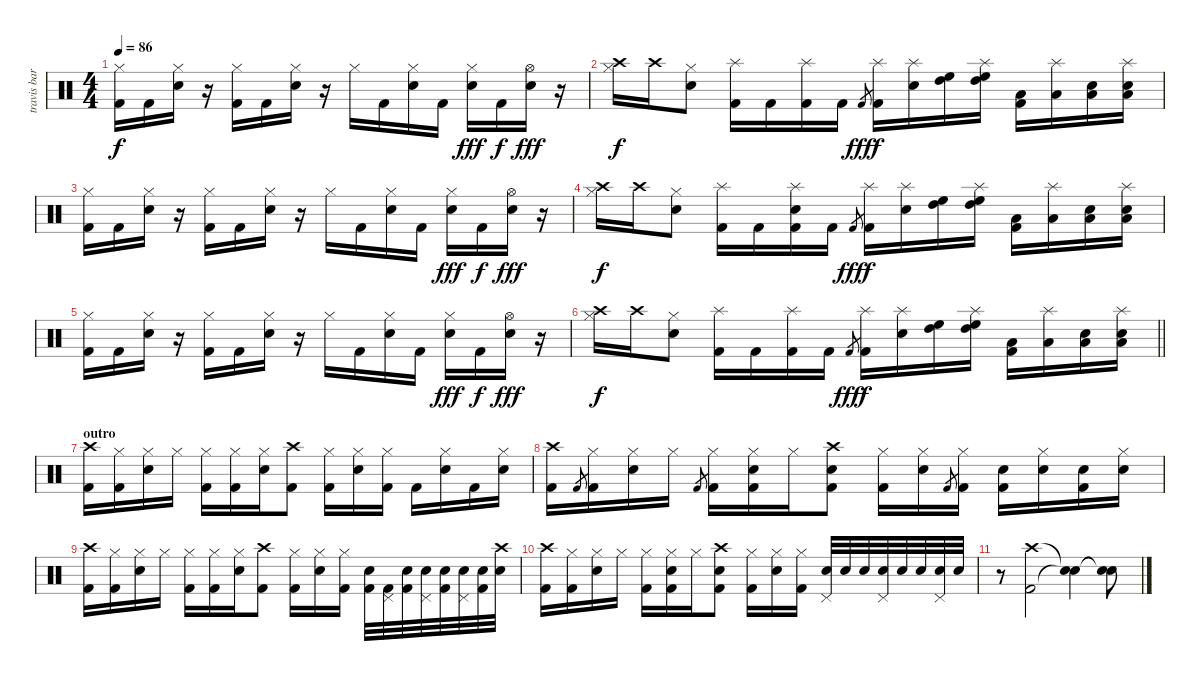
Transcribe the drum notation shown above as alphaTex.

\track ("travis barker drums" "travis bar") {instrument percussion}
\staff {score}
\articulation defaults
\ts (4 4)
\tempo 86
\clef neutral
\ks c
("Hi-Hat (closed)" "Kick (hit) 2").16{dy f} "Kick (hit) 2".16 ("Hi-Hat (closed)" "Snare (hit) 2").16 r.16 ("Hi-Hat (closed)" "Kick (hit) 2").16 "Kick (hit) 2".16 ("Hi-Hat (closed)" "Snare (hit) 2").16 r.16 "Hi-Hat (closed)".16 "Kick (hit) 2".16 ("Hi-Hat (closed)" "Snare (hit) 2").16 "Kick (hit) 2".16 ("Hi-Hat (closed)" "Snare (hit) 2").16{dy fff} "Kick (hit) 2".16{dy f} ("Hi-Hat (open)" "Snare (hit) 2").16{dy fff} r.16 |
("Hi-Hat (closed)" "Crash high (hit)").16{dy f} "Crash high (hit)".16 ("Hi-Hat (closed)" "Snare (hit) 2").8 ("Splash (hit)" "Kick (hit) 2").16 "Kick (hit) 2".16 ("Splash (hit)" "Kick (hit) 2"{tr (36 64)}).16 "Kick (hit) 2".16 "Kick (hit) 2".8{gr dy fff} ("Splash (hit)" "Kick (hit) 2").16{dy f} ("Splash (hit)" "Snare (hit) 2").16 ("High Floor Tom (hit)" "High Tom (hit)").16 ("Splash (hit)" "High Floor Tom (hit)" "High Tom (hit)").16 ("Low Tom (hit)" "Kick (hit) 2"{tr (36 64)}).16 ("Splash (hit)" "Low Tom (hit)").16 ("Snare (hit) 2" "Low Floor Tom (hit)").16 ("Splash (hit)" "Snare (hit) 2" "Low Floor Tom (hit)").16 |
("Hi-Hat (closed)" "Kick (hit) 2").16 "Kick (hit) 2".16 ("Hi-Hat (closed)" "Snare (hit) 2").16 r.16 ("Hi-Hat (closed)" "Kick (hit) 2").16 "Kick (hit) 2".16 ("Hi-Hat (closed)" "Snare (hit) 2").16 r.16 "Hi-Hat (closed)".16 "Kick (hit) 2".16 ("Hi-Hat (closed)" "Snare (hit) 2").16 "Kick (hit) 2".16 ("Hi-Hat (closed)" "Snare (hit) 2").16{dy fff} "Kick (hit) 2".16{dy f} ("Hi-Hat (open)" "Snare (hit) 2").16{dy fff} r.16 |
("Hi-Hat (closed)" "Crash high (hit)").16{dy f} "Crash high (hit)".16 ("Hi-Hat (closed)" "Snare (hit) 2").8 ("Splash (hit)" "Kick (hit) 2").16 "Kick (hit) 2".16 ("Kick (hit) 2" "Splash (hit)" "Snare (hit) 2"{tr (36 64)}).16 "Kick (hit) 2".16 "Kick (hit) 2".8{gr dy fff} ("Splash (hit)" "Kick (hit) 2").16{dy f} ("Splash (hit)" "Snare (hit) 2").16 ("High Floor Tom (hit)" "High Tom (hit)").16 ("Splash (hit)" "High Floor Tom (hit)" "High Tom (hit)").16 ("Low Tom (hit)" "Kick (hit) 2"{tr (36 64)}).16 ("Splash (hit)" "Low Tom (hit)").16 ("Snare (hit) 2" "Low Floor Tom (hit)").16 ("Splash (hit)" "Snare (hit) 2" "Low Floor Tom (hit)").16 |
("Hi-Hat (closed)" "Kick (hit) 2").16 "Kick (hit) 2".16 ("Hi-Hat (closed)" "Snare (hit) 2").16 r.16 ("Hi-Hat (closed)" "Kick (hit) 2").16 "Kick (hit) 2".16 ("Hi-Hat (closed)" "Snare (hit) 2").16 r.16 "Hi-Hat (closed)".16 "Kick (hit) 2".16 ("Hi-Hat (closed)" "Snare (hit) 2").16 "Kick (hit) 2".16 ("Hi-Hat (closed)" "Snare (hit) 2").16{dy fff} "Kick (hit) 2".16{dy f} ("Hi-Hat (open)" "Snare (hit) 2").16{dy fff} r.16 |
\barLineRight lightlight
("Hi-Hat (closed)" "Crash high (hit)").16{dy f} "Crash high (hit)".16 ("Hi-Hat (closed)" "Snare (hit) 2").8 ("Splash (hit)" "Kick (hit) 2").16 "Kick (hit) 2".16 ("Splash (hit)" "Kick (hit) 2"{tr (36 64)}).16 "Kick (hit) 2".16 "Kick (hit) 2".8{gr dy fff} ("Splash (hit)" "Kick (hit) 2").16{dy f} ("Splash (hit)" "Snare (hit) 2").16 ("High Floor Tom (hit)" "High Tom (hit)").16 ("Splash (hit)" "High Floor Tom (hit)" "High Tom (hit)").16 ("Low Tom (hit)" "Kick (hit) 2"{tr (36 64)}).16 ("Splash (hit)" "Low Tom (hit)").16 ("Snare (hit) 2" "Low Floor Tom (hit)").16 ("Splash (hit)" "Snare (hit) 2" "Low Floor Tom (hit)").16 |
\section ("" "outro")
("Crash high (hit)" "Kick (hit) 2").16 ("Hi-Hat (closed)" "Kick (hit) 2").16 ("Hi-Hat (closed)" "Snare (hit) 2").16 "Hi-Hat (closed)".16 ("Hi-Hat (closed)" "Kick (hit) 2").16 ("Hi-Hat (closed)" "Kick (hit) 2").16 ("Hi-Hat (closed)" "Snare (hit) 2").16 ("Crash high (hit)" "Kick (hit) 2").8 ("Hi-Hat (closed)" "Kick (hit) 2").16 ("Hi-Hat (closed)" "Snare (hit) 2").16 ("Hi-Hat (closed)" "Kick (hit) 2").16 "Kick (hit) 2".16 ("Hi-Hat (closed)" "Snare (hit) 2").16 "Kick (hit) 2".16 ("Hi-Hat (closed)" "Snare (hit) 2").16 |
("Crash high (hit)" "Kick (hit) 2").16 "Kick (hit) 2".8{gr} ("Hi-Hat (closed)" "Kick (hit) 2").16 ("Hi-Hat (closed)" "Snare (hit) 2").16 "Hi-Hat (closed)".16 "Kick (hit) 2".8{gr} ("Hi-Hat (closed)" "Kick (hit) 2").16 ("Hi-Hat (closed)" "Snare (hit) 2" "Kick (hit) 2").16 "Hi-Hat (closed)".16 ("Crash high (hit)" "Snare (hit) 2" "Kick (hit) 2"{tr (36 16)}).8 ("Hi-Hat (closed)" "Kick (hit) 2").16 ("Hi-Hat (closed)" "Snare (hit) 2").16 "Kick (hit) 2".8{gr} ("Hi-Hat (closed)" "Kick (hit) 2").16 ("Snare (hit) 2" "Kick (hit) 2").16 ("Hi-Hat (closed)" "Snare (hit) 2").16 ("Snare (hit) 2" "Kick (hit) 2").16 ("Hi-Hat (closed)" "Snare (hit) 2").16 |
("Crash high (hit)" "Kick (hit) 2").16 ("Hi-Hat (closed)" "Kick (hit) 2").16 ("Hi-Hat (closed)" "Snare (hit) 2").16 "Hi-Hat (closed)".16 ("Hi-Hat (closed)" "Kick (hit) 2").16 ("Hi-Hat (closed)" "Kick (hit) 2").16 ("Hi-Hat (closed)" "Snare (hit) 2").16 ("Crash high (hit)" "Kick (hit) 2").8 ("Hi-Hat (closed)" "Kick (hit) 2").16 ("Hi-Hat (closed)" "Snare (hit) 2").16 ("Hi-Hat (closed)" "Kick (hit) 2").16 ("Snare (hit) 2" "Kick (hit) 2").32 ("Pedal Hi-Hat (hit)" "Kick (hit) 2").32 ("Snare (hit) 2" "Kick (hit) 2").32 ("Pedal Hi-Hat (hit)" "Snare (hit) 2").32 ("Snare (hit) 2" "Kick (hit) 2").32 ("Pedal Hi-Hat (hit)" "Snare (hit) 2").32 ("Snare (hit) 2" "Kick (hit) 2").32 ("Crash high (hit)" "Snare (hit) 2").32 |
("Crash high (hit)" "Kick (hit) 2").16 ("Hi-Hat (closed)" "Kick (hit) 2").16 ("Hi-Hat (closed)" "Snare (hit) 2").16 "Hi-Hat (closed)".16 ("Hi-Hat (closed)" "Kick (hit) 2").16 ("Hi-Hat (closed)" "Snare (hit) 2" "Kick (hit) 2").16 "Hi-Hat (closed)".16 ("Crash high (hit)" "Snare (hit) 2" "Kick (hit) 2").8 ("Hi-Hat (closed)" "Kick (hit) 2").16 ("Hi-Hat (closed)" "Snare (hit) 2").16 ("Hi-Hat (closed)" "Kick (hit) 2").16 ("Pedal Hi-Hat (hit)" "Snare (hit) 2").32 "Snare (hit) 2".32 "Snare (hit) 2".32 ("Pedal Hi-Hat (hit)" "Snare (hit) 2").32 "Snare (hit) 2".32 "Snare (hit) 2".32 ("Pedal Hi-Hat (hit)" "Snare (hit) 2").32 "Snare (hit) 2".32 |
r.8 ("Crash high (hit)" "Kick (hit) 2").2 ("Snare (hit)"{t} "Snare (hit)"{t}).4 ("Snare (hit)"{t} "Snare (hit)"{t}).8
